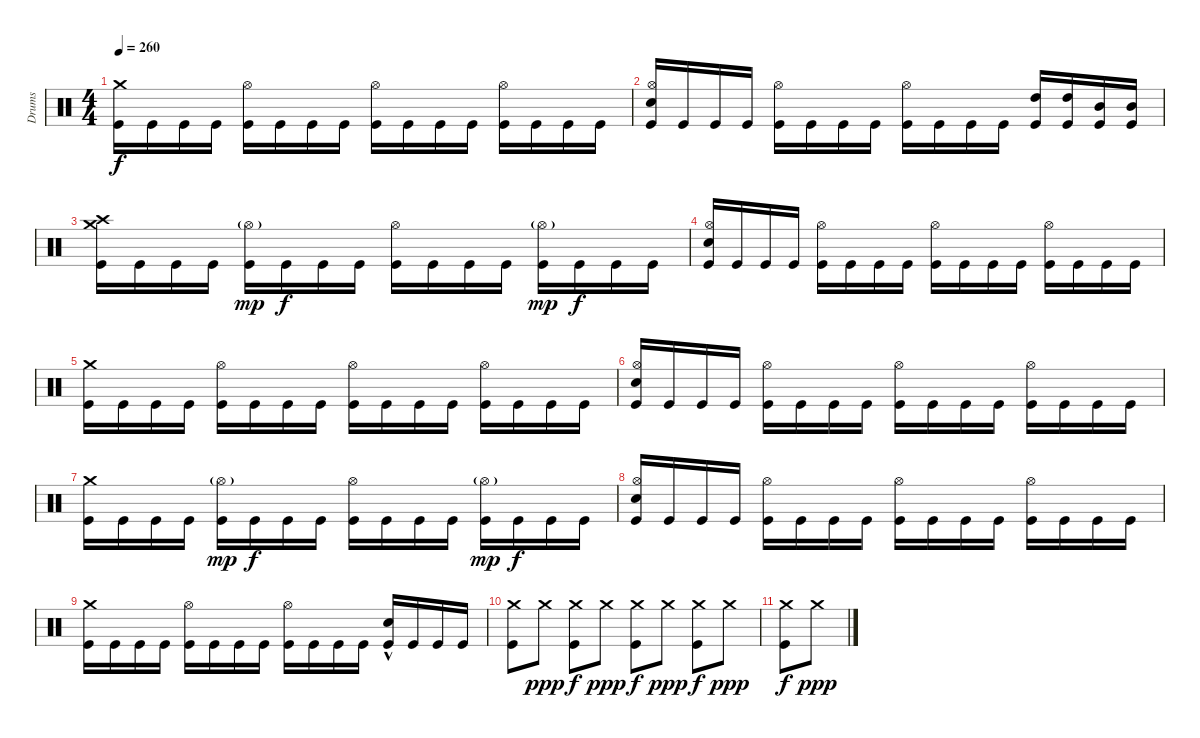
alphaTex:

\track ("Drums" "Drums") {instrument percussion}
\staff {score}
\articulation defaults
\ts (4 4)
\tempo 260
\clef neutral
\ks c
("Crash medium (hit)" "Kick (hit)").16{dy f} "Kick (hit)".16 "Kick (hit)".16 "Kick (hit)".16 ("Hi-Hat (open)" "Kick (hit)").16 "Kick (hit)".16 "Kick (hit)".16 "Kick (hit)".16 ("Hi-Hat (open)" "Kick (hit)").16 "Kick (hit)".16 "Kick (hit)".16 "Kick (hit)".16 ("Hi-Hat (open)" "Kick (hit)").16 "Kick (hit)".16 "Kick (hit)".16 "Kick (hit)".16 |
("Hi-Hat (open)" "Electric Snare (hit)" "Kick (hit)").16 "Kick (hit)".16 "Kick (hit)".16 "Kick (hit)".16 ("Hi-Hat (open)" "Kick (hit)").16 "Kick (hit)".16 "Kick (hit)".16 "Kick (hit)".16 ("Hi-Hat (open)" "Kick (hit)").16 "Kick (hit)".16 "Kick (hit)".16 "Kick (hit)".16 ("High Tom (hit)" "Kick (hit)").16 ("High Tom (hit)" "Kick (hit)").16 ("Mid Tom (hit)" "Kick (hit)").16 ("Mid Tom (hit)" "Kick (hit)").16 |
("Crash high (hit)" "Crash medium (hit)" "Kick (hit)").16 "Kick (hit)".16 "Kick (hit)".16 "Kick (hit)".16 ("Hi-Hat (open)"{g} "Kick (hit)").16{dy mp} "Kick (hit)".16{dy f} "Kick (hit)".16 "Kick (hit)".16 ("Hi-Hat (open)" "Kick (hit)").16 "Kick (hit)".16 "Kick (hit)".16 "Kick (hit)".16 ("Hi-Hat (open)"{g} "Kick (hit)").16{dy mp} "Kick (hit)".16{dy f} "Kick (hit)".16 "Kick (hit)".16 |
("Hi-Hat (open)" "Electric Snare (hit)" "Kick (hit)").16 "Kick (hit)".16 "Kick (hit)".16 "Kick (hit)".16 ("Hi-Hat (open)" "Kick (hit)").16 "Kick (hit)".16 "Kick (hit)".16 "Kick (hit)".16 ("Hi-Hat (open)" "Kick (hit)").16 "Kick (hit)".16 "Kick (hit)".16 "Kick (hit)".16 ("Hi-Hat (open)" "Kick (hit)").16 "Kick (hit)".16 "Kick (hit)".16 "Kick (hit)".16 |
("Crash medium (hit)" "Kick (hit)").16 "Kick (hit)".16 "Kick (hit)".16 "Kick (hit)".16 ("Hi-Hat (open)" "Kick (hit)").16 "Kick (hit)".16 "Kick (hit)".16 "Kick (hit)".16 ("Hi-Hat (open)" "Kick (hit)").16 "Kick (hit)".16 "Kick (hit)".16 "Kick (hit)".16 ("Hi-Hat (open)" "Kick (hit)").16 "Kick (hit)".16 "Kick (hit)".16 "Kick (hit)".16 |
("Hi-Hat (open)" "Electric Snare (hit)" "Kick (hit)").16 "Kick (hit)".16 "Kick (hit)".16 "Kick (hit)".16 ("Hi-Hat (open)" "Kick (hit)").16 "Kick (hit)".16 "Kick (hit)".16 "Kick (hit)".16 ("Hi-Hat (open)" "Kick (hit)").16 "Kick (hit)".16 "Kick (hit)".16 "Kick (hit)".16 ("Hi-Hat (open)" "Kick (hit)").16 "Kick (hit)".16 "Kick (hit)".16 "Kick (hit)".16 |
("Crash medium (hit)" "Kick (hit)").16 "Kick (hit)".16 "Kick (hit)".16 "Kick (hit)".16 ("Hi-Hat (open)"{g} "Kick (hit)").16{dy mp} "Kick (hit)".16{dy f} "Kick (hit)".16 "Kick (hit)".16 ("Hi-Hat (open)" "Kick (hit)").16 "Kick (hit)".16 "Kick (hit)".16 "Kick (hit)".16 ("Hi-Hat (open)"{g} "Kick (hit)").16{dy mp} "Kick (hit)".16{dy f} "Kick (hit)".16 "Kick (hit)".16 |
("Hi-Hat (open)" "Electric Snare (hit)" "Kick (hit)").16 "Kick (hit)".16 "Kick (hit)".16 "Kick (hit)".16 ("Hi-Hat (open)" "Kick (hit)").16 "Kick (hit)".16 "Kick (hit)".16 "Kick (hit)".16 ("Hi-Hat (open)" "Kick (hit)").16 "Kick (hit)".16 "Kick (hit)".16 "Kick (hit)".16 ("Hi-Hat (open)" "Kick (hit)").16 "Kick (hit)".16 "Kick (hit)".16 "Kick (hit)".16 |
("Crash medium (hit)" "Kick (hit)").16 "Kick (hit)".16 "Kick (hit)".16 "Kick (hit)".16 ("Hi-Hat (open)" "Kick (hit)").16 "Kick (hit)".16 "Kick (hit)".16 "Kick (hit)".16 ("Hi-Hat (open)" "Kick (hit)").16 "Kick (hit)".16 "Kick (hit)".16 "Kick (hit)".16 ("Electric Snare (hit)"{hac} "Kick (hit)").16 "Kick (hit)".16 "Kick (hit)".16 "Kick (hit)".16 |
("Crash medium (hit)" "Kick (hit)").8 "Crash medium (hit)".8{dy ppp} ("Crash medium (hit)" "Kick (hit)").8{dy f} "Crash medium (hit)".8{dy ppp} ("Crash medium (hit)" "Kick (hit)").8{dy f} "Crash medium (hit)".8{dy ppp} ("Crash medium (hit)" "Kick (hit)").8{dy f} "Crash medium (hit)".8{dy ppp} |
("Crash medium (hit)" "Kick (hit)").8{dy f} "Crash medium (hit)".8{dy ppp}
